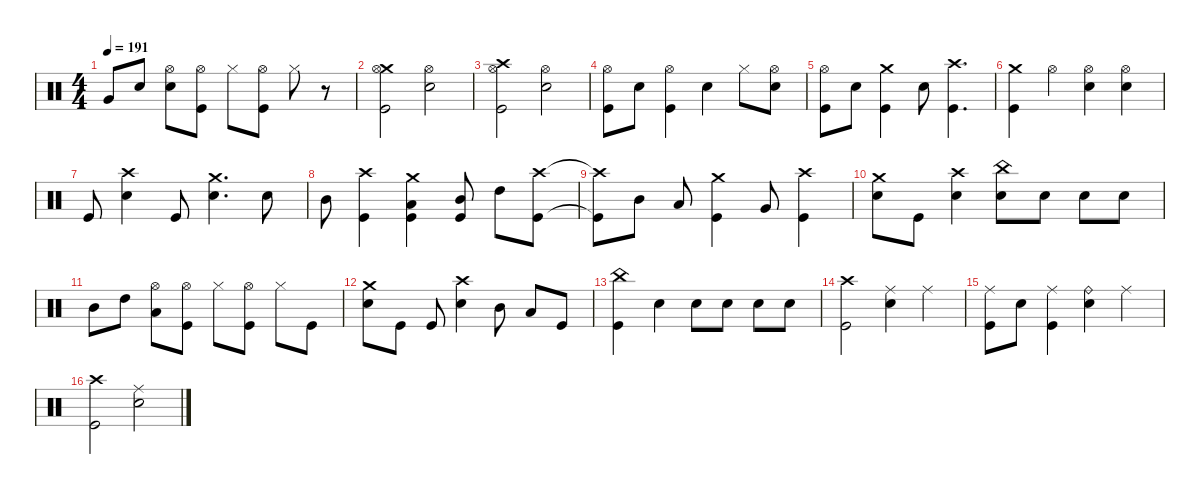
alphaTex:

\defaultSystemsLayout 4
\hideDynamics
\bracketExtendMode nobrackets
\singleTrackTrackNamePolicy hidden
\multiTrackTrackNamePolicy hidden
\firstSystemTrackNameMode fullname
\firstSystemTrackNameOrientation horizontal
\otherSystemsTrackNameOrientation horizontal
\track ("Drumkit" "drm.") {instrument percussion}
\staff {score}
\articulation defaults
\ts (4 4)
\tempo 191
\clef neutral
\ks c "Very Low Tom (hit)".8{dy mf beam Up} "Snare (hit) 2".8{beam Up}
("Snare (hit) 2" "Hi-Hat (open)").8{beam Down} ("Kick (hit)" "Hi-Hat (open)").8{beam Down} "Hi-Hat (closed)".8{beam Down} ("Kick (hit)" "Hi-Hat (open)").8{beam Down} "Hi-Hat (closed)".8{beam Down} r.8{beam Down} |
("Kick (hit)" "Crash medium (hit)" "Hi-Hat (open)").2{dy f beam Down} ("Hi-Hat (open)" "Snare (hit) 2").2{beam Down} |
("Kick (hit)" "Crash high (hit)" "Hi-Hat (open)").2{beam Down} ("Snare (hit) 2" "Hi-Hat (open)").2{beam Down} |
("Kick (hit)" "Hi-Hat (open)").8{beam Down} "Snare (hit) 2".8{dy mf beam Down} ("Kick (hit)" "Hi-Hat (open)").4{dy f beam Down} "Snare (hit) 2".4{beam Down} "Hi-Hat (closed)".8{beam Down} ("Hi-Hat (open)" "Snare (hit) 2").8{beam Down} |
("Kick (hit)" "Hi-Hat (open)").8{beam Down} "Snare (hit) 2".8{dy mp beam Down} ("Kick (hit)" "Crash medium (hit)").4{dy f beam Down} "Snare (hit) 2".8{beam Down} ("Crash high (hit)" "Kick (hit)").4{d beam Down} |
("Kick (hit)" "Crash medium (hit)").4{beam Down} "Hi-Hat (open)".4{beam Down} ("Hi-Hat (open)" "Snare (hit) 2").4{beam Down} ("Hi-Hat (open)" "Snare (hit) 2").4{beam Down} |
"Kick (hit)".8{beam Up} ("Snare (hit) 2" "Crash high (hit)").4{beam Down} "Kick (hit)".8{beam Up} ("Snare (hit) 2" "Crash medium (hit)").4{d beam Down} "Snare (hit) 2".8{beam Down} |
"Mid Tom (hit)".8{beam Down} ("Kick (hit)" "Crash high (hit)").4{beam Down} ("Kick (hit)" "Low Tom (hit)" "Crash medium (hit)").4{beam Down} ("Kick (hit)" "Mid Tom (hit)").8{beam Up} "High Tom (hit)".8{beam Down} ("Kick (hit)" "Crash high (hit)").8{beam Down} |
("Kick (hit)"{t} "Crash high (hit)"{t}).8{beam Down} "Mid Tom (hit)".8{beam Down} "Low Tom (hit)".8{beam Up} ("Kick (hit)" "Crash medium (hit)").4{beam Down} "Very Low Tom (hit)".8{beam Up} ("Kick (hit)" "Crash high (hit)").4{beam Down} |
("Crash medium (hit)" "Snare (hit) 2").8{beam Down} "Kick (hit)".8{beam Down} ("Snare (hit) 2" "Crash high (hit)").4{beam Down} ("Snare (hit) 2" "China (hit)").8{beam Down} "Snare (hit) 2".8{beam Down} "Snare (hit) 2".8{beam Down} "Snare (hit) 2".8{dy mf beam Down} |
"Mid Tom (hit)".8{dy f beam Down} "High Tom (hit)".8{beam Down} ("Hi-Hat (open)" "Low Tom (hit)").8{beam Down} ("Kick (hit)" "Hi-Hat (open)").8{beam Down} "Hi-Hat (closed)".8{beam Down} ("Kick (hit)" "Hi-Hat (open)").8{beam Down} "Hi-Hat (closed)".8{beam Down} "Kick (hit)".8{beam Down} |
("Snare (hit) 2" "Crash medium (hit)").8{beam Down} "Kick (hit)".8{beam Down} "Kick (hit)".8{beam Up} ("Snare (hit) 2" "Crash high (hit)").4{beam Down} "Mid Tom (hit)".8{beam Down} "Low Tom (hit)".8{beam Up} "Kick (hit)".8{beam Up} |
("Kick (hit)" "China (hit)").4{beam Down} "Snare (hit) 2".4{beam Down} "Snare (hit) 2".8{beam Down} "Snare (hit) 2".8{beam Down} "Snare (hit) 2".8{beam Down} "Snare (hit) 2".8{beam Down} |
("Kick (hit)" "Crash high (hit)").2{beam Down} ("Ride (middle)" "Snare (hit) 2").4{beam Down} "Ride (middle)".4{beam Down} |
("Kick (hit)" "Ride (middle)").8{beam Down} "Snare (hit) 2".8{dy mf beam Down} ("Kick (hit)" "Ride (middle)").4{dy f beam Down} ("Ride (bell)" "Snare (hit) 2").4{beam Down} "Ride (middle)".4{beam Down} |
("Kick (hit)" "Crash high (hit)").2{beam Down} ("Ride (middle)" "Snare (hit) 2").2{beam Down}
